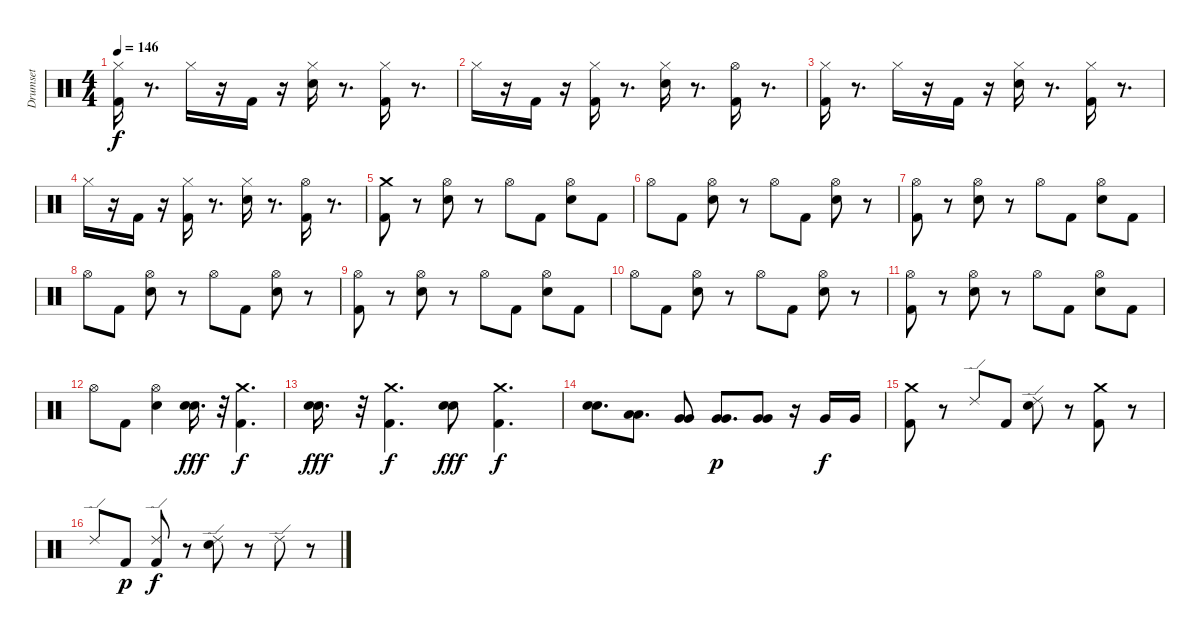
\track ("Drumset" "Drumset") {instrument percussion}
\staff {score}
\articulation defaults
\ts (4 4)
\tempo 146
\clef neutral
\ks c
("Kick (hit) 2" "Hi-Hat (closed)").16{dy f} r.8{d} "Hi-Hat (closed)".16 r.16 "Kick (hit) 2".16 r.16 ("Electric Snare (hit)" "Hi-Hat (closed)").16 r.8{d} ("Kick (hit) 2" "Hi-Hat (closed)").16 r.8{d} |
"Hi-Hat (closed)".16 r.16 "Kick (hit) 2".16 r.16 ("Kick (hit) 2" "Hi-Hat (closed)").16 r.8{d} ("Electric Snare (hit)" "Hi-Hat (closed)").16 r.8{d} ("Kick (hit) 2" "Hi-Hat (open)").16 r.8{d} |
("Kick (hit) 2" "Hi-Hat (closed)").16 r.8{d} "Hi-Hat (closed)".16 r.16 "Kick (hit) 2".16 r.16 ("Electric Snare (hit)" "Hi-Hat (closed)").16 r.8{d} ("Kick (hit) 2" "Hi-Hat (closed)").16 r.8{d} |
"Hi-Hat (closed)".16 r.16 "Kick (hit) 2".16 r.16 ("Kick (hit) 2" "Hi-Hat (closed)").16 r.8{d} ("Electric Snare (hit)" "Hi-Hat (closed)").16 r.8{d} ("Kick (hit) 2" "Hi-Hat (open)").16 r.8{d} |
("Kick (hit) 2" "Crash medium (hit)").8 r.8 ("Electric Snare (hit)" "Hi-Hat (open)").8 r.8 "Hi-Hat (open)".8 "Kick (hit) 2".8 ("Electric Snare (hit)" "Hi-Hat (open)").8 "Kick (hit) 2".8 |
"Hi-Hat (open)".8 "Kick (hit) 2".8 ("Electric Snare (hit)" "Hi-Hat (open)").8 r.8 "Hi-Hat (open)".8 "Kick (hit) 2".8 ("Electric Snare (hit)" "Hi-Hat (open)").8 r.8 |
("Kick (hit) 2" "Hi-Hat (open)").8 r.8 ("Electric Snare (hit)" "Hi-Hat (open)").8 r.8 "Hi-Hat (open)".8 "Kick (hit) 2".8 ("Electric Snare (hit)" "Hi-Hat (open)").8 "Kick (hit) 2".8 |
"Hi-Hat (open)".8 "Kick (hit) 2".8 ("Electric Snare (hit)" "Hi-Hat (open)").8 r.8 "Hi-Hat (open)".8 "Kick (hit) 2".8 ("Electric Snare (hit)" "Hi-Hat (open)").8 r.8 |
("Kick (hit) 2" "Hi-Hat (open)").8 r.8 ("Electric Snare (hit)" "Hi-Hat (open)").8 r.8 "Hi-Hat (open)".8 "Kick (hit) 2".8 ("Electric Snare (hit)" "Hi-Hat (open)").8 "Kick (hit) 2".8 |
"Hi-Hat (open)".8 "Kick (hit) 2".8 ("Electric Snare (hit)" "Hi-Hat (open)").8 r.8 "Hi-Hat (open)".8 "Kick (hit) 2".8 ("Electric Snare (hit)" "Hi-Hat (open)").8 r.8 |
("Kick (hit) 2" "Hi-Hat (open)").8 r.8 ("Electric Snare (hit)" "Hi-Hat (open)").8 r.8 "Hi-Hat (open)".8 "Kick (hit) 2".8 ("Electric Snare (hit)" "Hi-Hat (open)").8 "Kick (hit) 2".8 |
"Hi-Hat (open)".8 "Kick (hit) 2".8 ("Electric Snare (hit)" "Hi-Hat (open)").4 ("Electric Snare (hit)" "Electric Snare (hit)").16{d dy fff} r.32 ("Kick (hit) 2" "Crash medium (hit)").4{d dy f} |
("Electric Snare (hit)" "Electric Snare (hit)").16{d dy fff} r.32 ("Kick (hit) 2" "Crash medium (hit)").4{d dy f} ("Electric Snare (hit)" "Electric Snare (hit)").8{dy fff} ("Kick (hit) 2" "Crash medium (hit)").4{d dy f} |
("Electric Snare (hit)" "Electric Snare (hit)").8{d} ("Low Tom (hit)" "Low Tom (hit)").8{d} ("Very Low Tom (hit)" "Very Low Tom (hit)").8 ("Very Low Tom (hit)" "Very Low Tom (hit)").8{d dy p} ("Very Low Tom (hit)" "Very Low Tom (hit)").8 r.16 "Very Low Tom (hit)".16{dy f} "Very Low Tom (hit)".16 |
("Kick (hit) 2" "Crash medium (hit)").8 r.8 "Ride (edge) 2".8 "Kick (hit) 2".8 ("Electric Snare (hit)" "Ride (edge) 2").8 r.8 ("Kick (hit) 2" "Crash medium (hit)").8 r.8 |
"Ride (edge) 2".8 "Kick (hit) 2".8{dy p} ("Kick (hit) 2" "Ride (edge) 2").8{dy f} r.8 ("Electric Snare (hit)" "Ride (edge) 2").8 r.8 "Ride (edge) 2".8 r.8
